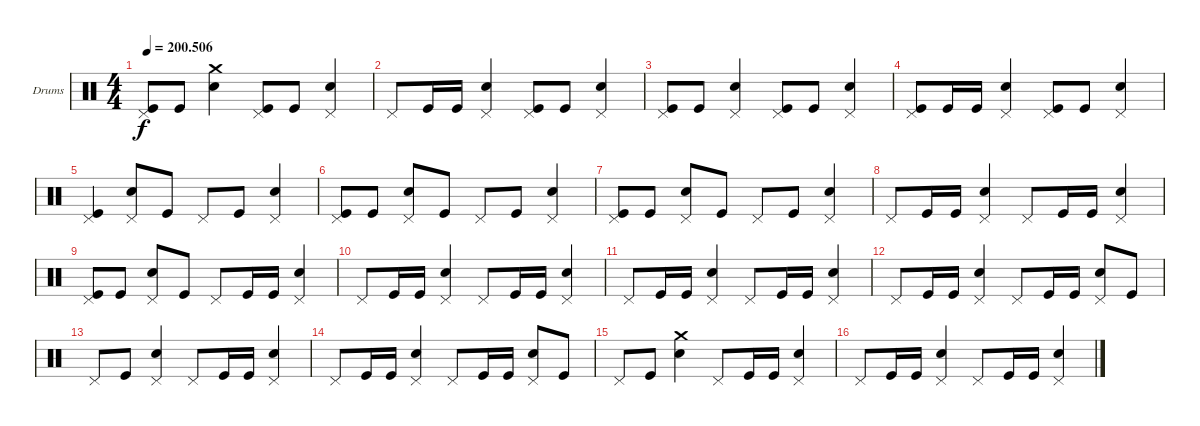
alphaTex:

\bracketExtendMode groupsimilarinstruments
\firstSystemTrackNameOrientation horizontal
\otherSystemsTrackNameOrientation horizontal
\track ("Drums" "Drums") {instrument percussion}
\staff {score}
\articulation defaults
\ts (4 4)
\tempo
200.506
\accidentals auto
\clef neutral
\ottava regular
\simile none
\ks c
("Pedal Hi-Hat (hit)" "Kick (hit)").8{dy f} "Kick (hit)".8 ("Crash medium (hit)" "Snare (hit) 2").4 ("Pedal Hi-Hat (hit)" "Kick (hit)").8 "Kick (hit)".8 ("Pedal Hi-Hat (hit)" "Snare (hit) 2").4 |
"Pedal Hi-Hat (hit)".8 "Kick (hit)".16 "Kick (hit)".16 ("Pedal Hi-Hat (hit)" "Snare (hit) 2").4 ("Pedal Hi-Hat (hit)" "Kick (hit)").8 "Kick (hit)".8 ("Pedal Hi-Hat (hit)" "Snare (hit) 2").4 |
("Pedal Hi-Hat (hit)" "Kick (hit)").8 "Kick (hit)".8 ("Pedal Hi-Hat (hit)" "Snare (hit) 2").4 ("Pedal Hi-Hat (hit)" "Kick (hit)").8 "Kick (hit)".8 ("Pedal Hi-Hat (hit)" "Snare (hit) 2").4 |
("Pedal Hi-Hat (hit)" "Kick (hit)").8 "Kick (hit)".16 "Kick (hit)".16 ("Pedal Hi-Hat (hit)" "Snare (hit) 2").4 ("Pedal Hi-Hat (hit)" "Kick (hit)").8 "Kick (hit)".8 ("Pedal Hi-Hat (hit)" "Snare (hit) 2").4 |
("Pedal Hi-Hat (hit)" "Kick (hit)").4 ("Pedal Hi-Hat (hit)" "Snare (hit) 2").8 "Kick (hit)".8 "Pedal Hi-Hat (hit)".8 "Kick (hit)".8 ("Pedal Hi-Hat (hit)" "Snare (hit) 2").4 |
("Pedal Hi-Hat (hit)" "Kick (hit)").8 "Kick (hit)".8 ("Pedal Hi-Hat (hit)" "Snare (hit) 2").8 "Kick (hit)".8 "Pedal Hi-Hat (hit)".8 "Kick (hit)".8 ("Pedal Hi-Hat (hit)" "Snare (hit) 2").4 |
("Pedal Hi-Hat (hit)" "Kick (hit)").8 "Kick (hit)".8 ("Pedal Hi-Hat (hit)" "Snare (hit) 2").8 "Kick (hit)".8 "Pedal Hi-Hat (hit)".8 "Kick (hit)".8 ("Pedal Hi-Hat (hit)" "Snare (hit) 2").4 |
"Pedal Hi-Hat (hit)".8 "Kick (hit)".16 "Kick (hit)".16 ("Pedal Hi-Hat (hit)" "Snare (hit) 2").4 "Pedal Hi-Hat (hit)".8 "Kick (hit)".16 "Kick (hit)".16 ("Pedal Hi-Hat (hit)" "Snare (hit) 2").4 |
("Pedal Hi-Hat (hit)" "Kick (hit)").8 "Kick (hit)".8 ("Pedal Hi-Hat (hit)" "Snare (hit) 2").8 "Kick (hit)".8 "Pedal Hi-Hat (hit)".8 "Kick (hit)".16 "Kick (hit)".16 ("Pedal Hi-Hat (hit)" "Snare (hit) 2").4 |
"Pedal Hi-Hat (hit)".8 "Kick (hit)".16 "Kick (hit)".16 ("Pedal Hi-Hat (hit)" "Snare (hit) 2").4 "Pedal Hi-Hat (hit)".8 "Kick (hit)".16 "Kick (hit)".16 ("Pedal Hi-Hat (hit)" "Snare (hit) 2").4 |
"Pedal Hi-Hat (hit)".8 "Kick (hit)".16 "Kick (hit)".16 ("Pedal Hi-Hat (hit)" "Snare (hit) 2").4 "Pedal Hi-Hat (hit)".8 "Kick (hit)".16 "Kick (hit)".16 ("Pedal Hi-Hat (hit)" "Snare (hit) 2").4 |
"Pedal Hi-Hat (hit)".8 "Kick (hit)".16 "Kick (hit)".16 ("Pedal Hi-Hat (hit)" "Snare (hit) 2").4 "Pedal Hi-Hat (hit)".8 "Kick (hit)".16 "Kick (hit)".16 ("Pedal Hi-Hat (hit)" "Snare (hit) 2").8 "Kick (hit)".8 |
"Pedal Hi-Hat (hit)".8 "Kick (hit)".8 ("Pedal Hi-Hat (hit)" "Snare (hit) 2").4 "Pedal Hi-Hat (hit)".8 "Kick (hit)".16 "Kick (hit)".16 ("Pedal Hi-Hat (hit)" "Snare (hit) 2").4 |
"Pedal Hi-Hat (hit)".8 "Kick (hit)".16 "Kick (hit)".16 ("Pedal Hi-Hat (hit)" "Snare (hit) 2").4 "Pedal Hi-Hat (hit)".8 "Kick (hit)".16 "Kick (hit)".16 ("Pedal Hi-Hat (hit)" "Snare (hit) 2").8 "Kick (hit)".8 |
"Pedal Hi-Hat (hit)".8 "Kick (hit)".8 ("Snare (hit) 2" "Crash medium (hit)").4 "Pedal Hi-Hat (hit)".8 "Kick (hit)".16 "Kick (hit)".16 ("Pedal Hi-Hat (hit)" "Snare (hit) 2").4 |
"Pedal Hi-Hat (hit)".8 "Kick (hit)".16 "Kick (hit)".16 ("Pedal Hi-Hat (hit)" "Snare (hit) 2").4 "Pedal Hi-Hat (hit)".8 "Kick (hit)".16 "Kick (hit)".16 ("Pedal Hi-Hat (hit)" "Snare (hit) 2").4
